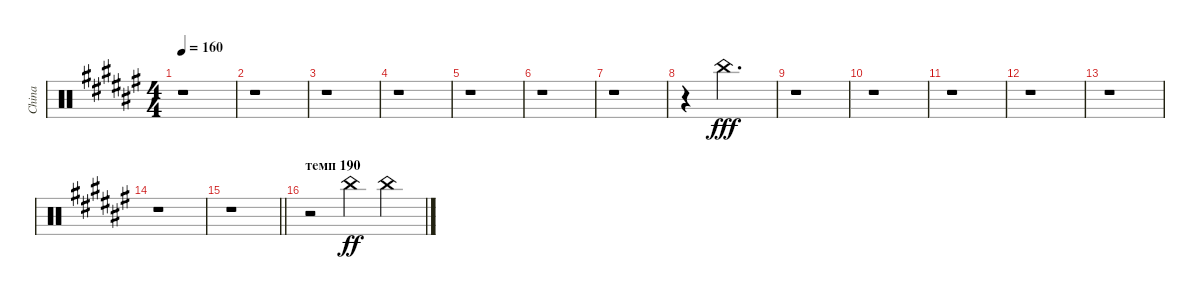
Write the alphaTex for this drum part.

\track ("China" "China") {instrument percussion}
\staff {score}
\articulation defaults
\ts (4 4)
\tempo 160
\clef neutral
\ks d#minor
r.1{dy ff} |
r.1 |
r.1 |
r.1 |
r.1 |
r.1 |
r.1 |
r.4 "China (hit)".2{d dy fff} |
r.1 |
r.1 |
r.1 |
r.1 |
r.1 |
r.1 |
\barLineRight lightlight
r.1 |
\section ("" "темп 190")
r.2 "China (hit)".4{dy ff} "China (hit)".4
